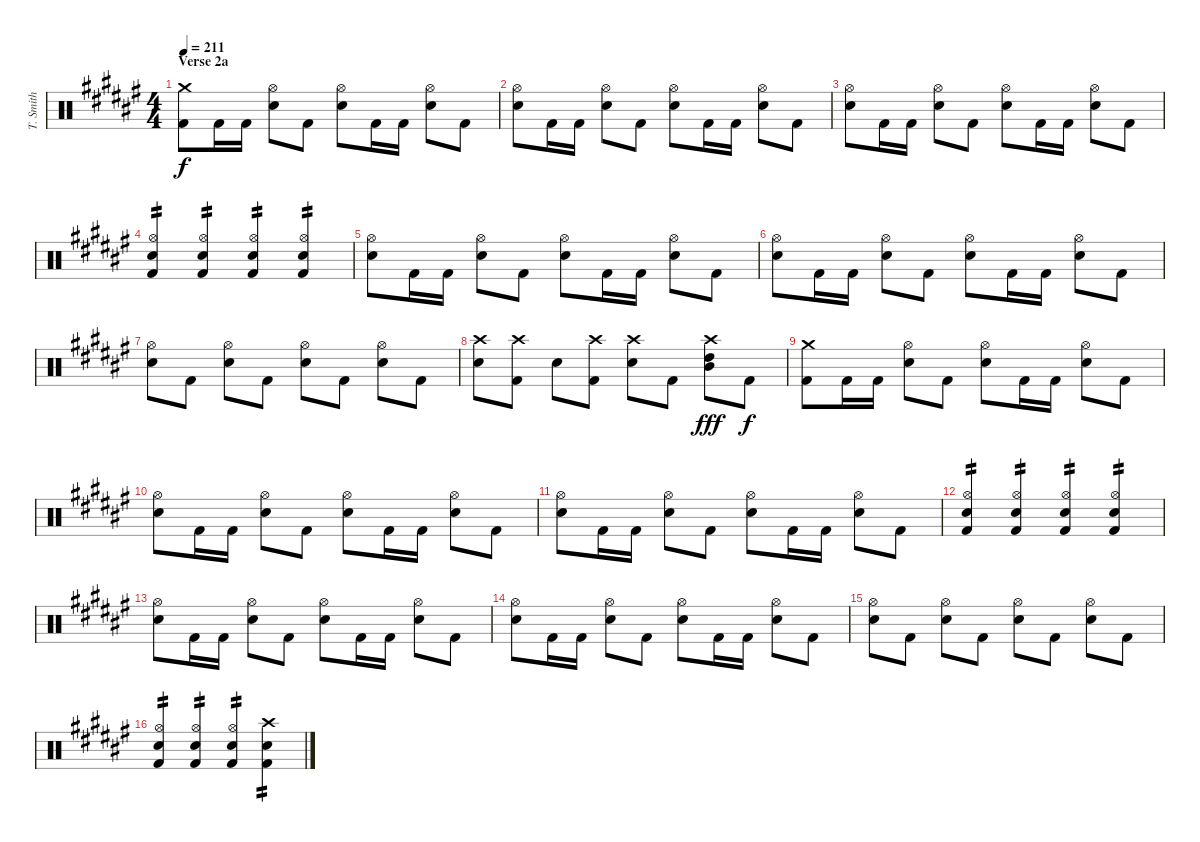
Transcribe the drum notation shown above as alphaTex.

\track ("T. Smith" "T. Smith") {instrument percussion}
\staff {score}
\articulation defaults
\ts (4 4)
\section ("" "Verse 2a")
\tempo 211
\clef neutral
\ks d#minor
("Crash medium (hit)" "Kick (hit) 2").8{dy f volume 13 balance 8} "Kick (hit) 2".16 "Kick (hit) 2".16 ("Hi-Hat (open)" "Electric Snare (hit)").8 "Kick (hit) 2".8 ("Hi-Hat (open)" "Electric Snare (hit)").8 "Kick (hit) 2".16 "Kick (hit) 2".16 ("Hi-Hat (open)" "Electric Snare (hit)").8 "Kick (hit) 2".8 |
("Hi-Hat (open)" "Electric Snare (hit)").8 "Kick (hit) 2".16 "Kick (hit) 2".16 ("Hi-Hat (open)" "Electric Snare (hit)").8 "Kick (hit) 2".8 ("Hi-Hat (open)" "Electric Snare (hit)").8 "Kick (hit) 2".16 "Kick (hit) 2".16 ("Hi-Hat (open)" "Electric Snare (hit)").8 "Kick (hit) 2".8 |
("Hi-Hat (open)" "Electric Snare (hit)").8 "Kick (hit) 2".16 "Kick (hit) 2".16 ("Hi-Hat (open)" "Electric Snare (hit)").8 "Kick (hit) 2".8 ("Hi-Hat (open)" "Electric Snare (hit)").8 "Kick (hit) 2".16 "Kick (hit) 2".16 ("Hi-Hat (open)" "Electric Snare (hit)").8 "Kick (hit) 2".8 |
("Hi-Hat (open)" "Electric Snare (hit)" "Kick (hit) 2").4{tp 2} ("Hi-Hat (open)" "Electric Snare (hit)" "Kick (hit) 2").4{tp 2} ("Hi-Hat (open)" "Electric Snare (hit)" "Kick (hit) 2").4{tp 2} ("Hi-Hat (open)" "Electric Snare (hit)" "Kick (hit) 2").4{tp 2} |
("Hi-Hat (open)" "Electric Snare (hit)").8 "Kick (hit) 2".16 "Kick (hit) 2".16 ("Hi-Hat (open)" "Electric Snare (hit)").8 "Kick (hit) 2".8 ("Hi-Hat (open)" "Electric Snare (hit)").8 "Kick (hit) 2".16 "Kick (hit) 2".16 ("Hi-Hat (open)" "Electric Snare (hit)").8 "Kick (hit) 2".8 |
("Hi-Hat (open)" "Electric Snare (hit)").8 "Kick (hit) 2".16 "Kick (hit) 2".16 ("Hi-Hat (open)" "Electric Snare (hit)").8 "Kick (hit) 2".8 ("Hi-Hat (open)" "Electric Snare (hit)").8 "Kick (hit) 2".16 "Kick (hit) 2".16 ("Hi-Hat (open)" "Electric Snare (hit)").8 "Kick (hit) 2".8 |
("Hi-Hat (open)" "Electric Snare (hit)").8 "Kick (hit) 2".8 ("Hi-Hat (open)" "Electric Snare (hit)").8 "Kick (hit) 2".8 ("Hi-Hat (open)" "Electric Snare (hit)").8 "Kick (hit) 2".8 ("Hi-Hat (open)" "Electric Snare (hit)").8 "Kick (hit) 2".8 |
("Crash high (hit)" "Electric Snare (hit)").8 ("Crash high (hit)" "Kick (hit) 2").8 "Electric Snare (hit)".8 ("Crash high (hit)" "Kick (hit) 2").8 ("Crash high (hit)" "Electric Snare (hit)").8 "Kick (hit) 2".8 ("Crash high (hit)" "Mid Tom (hit)" "High Tom (hit)").8{dy fff} "Kick (hit) 2".8{dy f} |
("Crash medium (hit)" "Kick (hit) 2").8 "Kick (hit) 2".16 "Kick (hit) 2".16 ("Hi-Hat (open)" "Electric Snare (hit)").8 "Kick (hit) 2".8 ("Hi-Hat (open)" "Electric Snare (hit)").8 "Kick (hit) 2".16 "Kick (hit) 2".16 ("Hi-Hat (open)" "Electric Snare (hit)").8 "Kick (hit) 2".8 |
("Hi-Hat (open)" "Electric Snare (hit)").8 "Kick (hit) 2".16 "Kick (hit) 2".16 ("Hi-Hat (open)" "Electric Snare (hit)").8 "Kick (hit) 2".8 ("Hi-Hat (open)" "Electric Snare (hit)").8 "Kick (hit) 2".16 "Kick (hit) 2".16 ("Hi-Hat (open)" "Electric Snare (hit)").8 "Kick (hit) 2".8 |
("Hi-Hat (open)" "Electric Snare (hit)").8 "Kick (hit) 2".16 "Kick (hit) 2".16 ("Hi-Hat (open)" "Electric Snare (hit)").8 "Kick (hit) 2".8 ("Hi-Hat (open)" "Electric Snare (hit)").8 "Kick (hit) 2".16 "Kick (hit) 2".16 ("Hi-Hat (open)" "Electric Snare (hit)").8 "Kick (hit) 2".8 |
("Hi-Hat (open)" "Electric Snare (hit)" "Kick (hit) 2").4{tp 2} ("Hi-Hat (open)" "Electric Snare (hit)" "Kick (hit) 2").4{tp 2} ("Hi-Hat (open)" "Electric Snare (hit)" "Kick (hit) 2").4{tp 2} ("Hi-Hat (open)" "Electric Snare (hit)" "Kick (hit) 2").4{tp 2} |
("Hi-Hat (open)" "Electric Snare (hit)").8 "Kick (hit) 2".16 "Kick (hit) 2".16 ("Hi-Hat (open)" "Electric Snare (hit)").8 "Kick (hit) 2".8 ("Hi-Hat (open)" "Electric Snare (hit)").8 "Kick (hit) 2".16 "Kick (hit) 2".16 ("Hi-Hat (open)" "Electric Snare (hit)").8 "Kick (hit) 2".8 |
("Hi-Hat (open)" "Electric Snare (hit)").8 "Kick (hit) 2".16 "Kick (hit) 2".16 ("Hi-Hat (open)" "Electric Snare (hit)").8 "Kick (hit) 2".8 ("Hi-Hat (open)" "Electric Snare (hit)").8 "Kick (hit) 2".16 "Kick (hit) 2".16 ("Hi-Hat (open)" "Electric Snare (hit)").8 "Kick (hit) 2".8 |
("Hi-Hat (open)" "Electric Snare (hit)").8 "Kick (hit) 2".8 ("Hi-Hat (open)" "Electric Snare (hit)").8 "Kick (hit) 2".8 ("Hi-Hat (open)" "Electric Snare (hit)").8 "Kick (hit) 2".8 ("Hi-Hat (open)" "Electric Snare (hit)").8 "Kick (hit) 2".8 |
("Hi-Hat (open)" "Electric Snare (hit)" "Kick (hit) 2").4{tp 2} ("Hi-Hat (open)" "Electric Snare (hit)" "Kick (hit) 2").4{tp 2} ("Hi-Hat (open)" "Electric Snare (hit)" "Kick (hit) 2").4{tp 2} ("Crash high (hit)" "Electric Snare (hit)" "Kick (hit) 2").4{tp 2}
